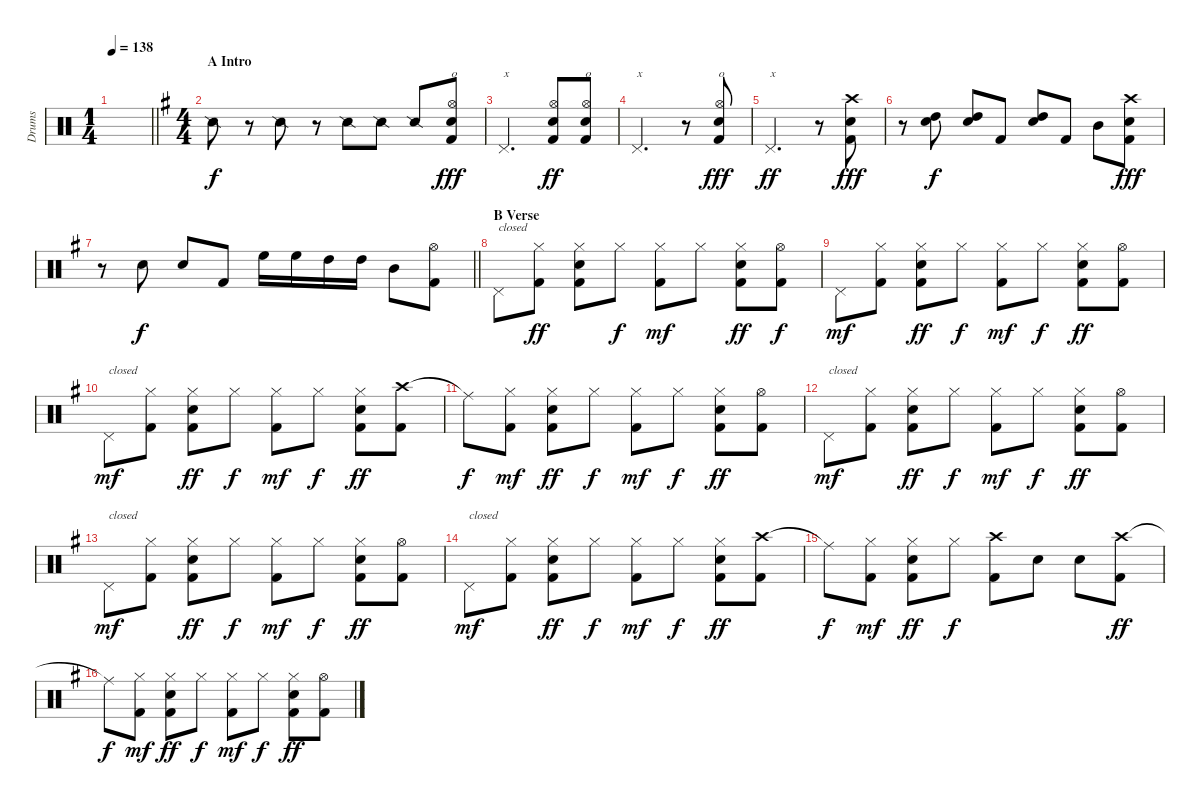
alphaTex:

\track ("Drums" "Drums") {instrument percussion}
\staff {score}
\articulation defaults
\ts (1 4)
\tempo 138
\clef neutral
\barLineRight lightlight
\ks c
|
\ts (4 4)
\section ("" "A Intro")
\ks g "Snare (side stick) 2".8
r.8 "Snare (side stick) 2".8 r.8 "Snare (side stick) 2".8 "Snare (side stick) 2".8 "Snare (side stick) 2".8 ("Snare (hit) 2" "Hi-Hat (open)" "Kick (hit) 2").8{txt "o" dy fff} |
"Pedal Hi-Hat (hit)".2{d txt "x"} ("Snare (hit) 2" "Hi-Hat (open)" "Kick (hit) 2").8{dy ff} ("Snare (hit) 2" "Hi-Hat (open)" "Kick (hit) 2").8{txt "o"} |
"Pedal Hi-Hat (hit)".2{d txt "x"} r.8 ("Snare (hit) 2" "Hi-Hat (open)" "Kick (hit) 2").8{txt "o" dy fff} |
"Pedal Hi-Hat (hit)".2{d txt "x" dy ff} r.8 ("Crash high (hit)" "Snare (hit) 2" "Kick (hit) 2").8{dy fff} |
r.8 ("High Tom (hit)" "Snare (hit) 2").8{dy f} ("High Tom (hit)" "Snare (hit) 2").8 "Kick (hit) 2".8 ("High Tom (hit)" "Snare (hit) 2").8 "Kick (hit) 2".8 "Mid Tom (hit)".8 ("Crash high (hit)" "Snare (hit) 2" "Kick (hit) 2").8{dy fff} |
\barLineRight lightlight
r.8 "Snare (hit) 2".8{dy f} "Snare (hit) 2".8 "Kick (hit) 2".8 "High Floor Tom (hit)".16 "High Floor Tom (hit)".16 "High Tom (hit)".16 "High Tom (hit)".16 "Mid Tom (hit)".8 ("Hi-Hat (open)" "Kick (hit) 2").8 |
\section ("" "B Verse")
"Pedal Hi-Hat (hit)".8{txt "closed"} ("Hi-Hat (closed)" "Kick (hit) 2").8{dy ff} ("Snare (hit) 2" "Hi-Hat (closed)" "Kick (hit) 2").8 "Hi-Hat (closed)".8{dy f} ("Hi-Hat (closed)" "Kick (hit) 2").8{dy mf} "Hi-Hat (closed)".8 ("Snare (hit) 2" "Hi-Hat (closed)" "Kick (hit) 2").8{dy ff} ("Hi-Hat (open)" "Kick (hit) 2").8{dy f} |
"Pedal Hi-Hat (hit)".8{dy mf} ("Hi-Hat (closed)" "Kick (hit) 2").8 ("Snare (hit) 2" "Hi-Hat (closed)" "Kick (hit) 2").8{dy ff} "Hi-Hat (closed)".8{dy f} ("Hi-Hat (closed)" "Kick (hit) 2").8{dy mf} "Hi-Hat (closed)".8{dy f} ("Snare (hit) 2" "Hi-Hat (closed)" "Kick (hit) 2").8{dy ff} ("Hi-Hat (open)" "Kick (hit) 2").8 |
"Pedal Hi-Hat (hit)".8{txt "closed" dy mf} ("Hi-Hat (closed)" "Kick (hit) 2").8 ("Snare (hit) 2" "Hi-Hat (closed)" "Kick (hit) 2").8{dy ff} "Hi-Hat (closed)".8{dy f} ("Hi-Hat (closed)" "Kick (hit) 2").8{dy mf} "Hi-Hat (closed)".8{dy f} ("Snare (hit) 2" "Hi-Hat (closed)" "Kick (hit) 2").8{dy ff} ("Crash high (hit)" "Kick (hit) 2").8 |
"Ride (middle)"{t}.8{dy f} ("Hi-Hat (closed)" "Kick (hit) 2").8{dy mf} ("Snare (hit) 2" "Hi-Hat (closed)" "Kick (hit) 2").8{dy ff} "Hi-Hat (closed)".8{dy f} ("Hi-Hat (closed)" "Kick (hit) 2").8{dy mf} "Hi-Hat (closed)".8{dy f} ("Snare (hit) 2" "Hi-Hat (closed)" "Kick (hit) 2").8{dy ff} ("Hi-Hat (open)" "Kick (hit) 2").8 |
"Pedal Hi-Hat (hit)".8{txt "closed" dy mf} ("Hi-Hat (closed)" "Kick (hit) 2").8 ("Snare (hit) 2" "Hi-Hat (closed)" "Kick (hit) 2").8{dy ff} "Hi-Hat (closed)".8{dy f} ("Hi-Hat (closed)" "Kick (hit) 2").8{dy mf} "Hi-Hat (closed)".8{dy f} ("Snare (hit) 2" "Hi-Hat (closed)" "Kick (hit) 2").8{dy ff} ("Hi-Hat (open)" "Kick (hit) 2").8 |
"Pedal Hi-Hat (hit)".8{txt "closed" dy mf} ("Hi-Hat (closed)" "Kick (hit) 2").8 ("Snare (hit) 2" "Hi-Hat (closed)" "Kick (hit) 2").8{dy ff} "Hi-Hat (closed)".8{dy f} ("Hi-Hat (closed)" "Kick (hit) 2").8{dy mf} "Hi-Hat (closed)".8{dy f} ("Snare (hit) 2" "Hi-Hat (closed)" "Kick (hit) 2").8{dy ff} ("Hi-Hat (open)" "Kick (hit) 2").8 |
"Pedal Hi-Hat (hit)".8{txt "closed" dy mf} ("Hi-Hat (closed)" "Kick (hit) 2").8 ("Snare (hit) 2" "Hi-Hat (closed)" "Kick (hit) 2").8{dy ff} "Hi-Hat (closed)".8{dy f} ("Hi-Hat (closed)" "Kick (hit) 2").8{dy mf} "Hi-Hat (closed)".8{dy f} ("Snare (hit) 2" "Hi-Hat (closed)" "Kick (hit) 2").8{dy ff} ("Crash high (hit)" "Kick (hit) 2").8 |
"Ride (middle)"{t}.8{dy f} ("Hi-Hat (closed)" "Kick (hit) 2").8{dy mf} ("Snare (hit) 2" "Hi-Hat (closed)" "Kick (hit) 2").8{dy ff} "Hi-Hat (closed)".8{dy f} ("Crash high (hit)" "Kick (hit) 2").8 "Snare (hit) 2".8 "Snare (hit) 2".8 ("Crash high (hit)" "Kick (hit) 2").8{dy ff} |
"Ride (middle)"{t}.8{dy f} ("Hi-Hat (closed)" "Kick (hit) 2").8{dy mf} ("Snare (hit) 2" "Hi-Hat (closed)" "Kick (hit) 2").8{dy ff} "Hi-Hat (closed)".8{dy f} ("Hi-Hat (closed)" "Kick (hit) 2").8{dy mf} "Hi-Hat (closed)".8{dy f} ("Snare (hit) 2" "Hi-Hat (closed)" "Kick (hit) 2").8{dy ff} ("Hi-Hat (open)" "Kick (hit) 2").8
